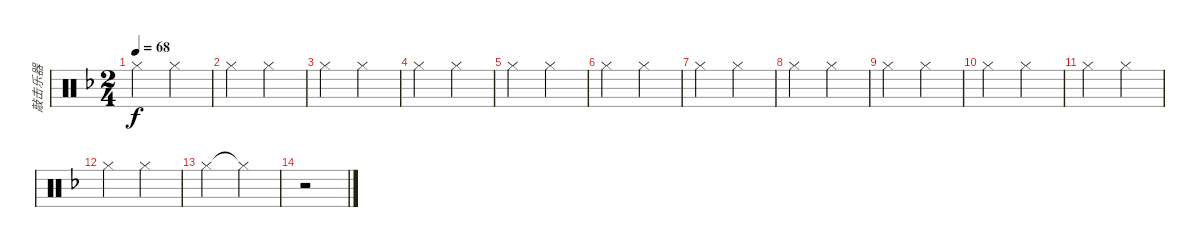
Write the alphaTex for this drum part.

\track ("敲击乐器" "敲击乐器") {instrument percussion}
\staff {score}
\articulation defaults
\ts (2 4)
\tempo 68
\clef neutral
\ks f "Hi-Hat (closed)".4{dy f} "Hi-Hat (closed)".4
|
"Hi-Hat (closed)".4 "Hi-Hat (closed)".4 |
"Hi-Hat (closed)".4 "Hi-Hat (closed)".4 |
"Hi-Hat (closed)".4 "Hi-Hat (closed)".4 |
"Hi-Hat (closed)".4 "Hi-Hat (closed)".4 |
"Hi-Hat (closed)".4 "Hi-Hat (closed)".4 |
"Hi-Hat (closed)".4 "Hi-Hat (closed)".4 |
"Hi-Hat (closed)".4 "Hi-Hat (closed)".4 |
"Hi-Hat (closed)".4 "Hi-Hat (closed)".4 |
"Hi-Hat (closed)".4 "Hi-Hat (closed)".4 |
"Hi-Hat (closed)".4 "Hi-Hat (closed)".4 |
"Hi-Hat (closed)".4 "Hi-Hat (closed)".4 |
"Hi-Hat (closed)".4 "Hi-Hat (closed)"{t}.4 |
r.2
